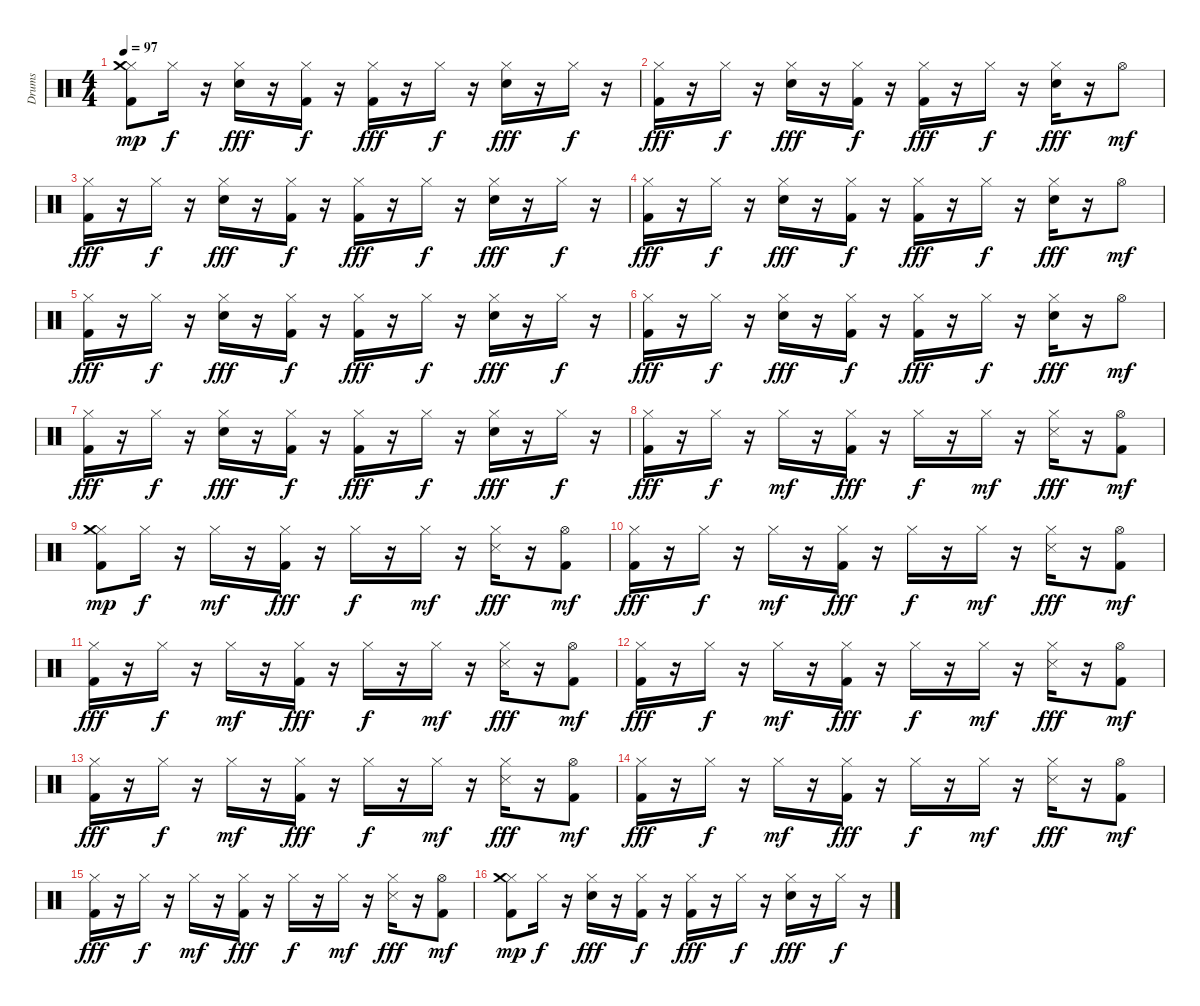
\track ("Drums" "Drums") {instrument percussion}
\staff {score}
\articulation defaults
\ts (4 4)
\tempo 97
\clef neutral
\ks c
("Kick (hit) 2" "Hi-Hat (closed)" "Crash medium (hit)").8{dy mp} "Hi-Hat (closed)".16{dy f} r.16 ("Electric Snare (hit)" "Hi-Hat (closed)").16{dy fff} r.16 ("Kick (hit) 2" "Hi-Hat (closed)").16{dy f} r.16 ("Kick (hit) 2" "Hi-Hat (closed)").16{dy fff} r.16 "Hi-Hat (closed)".16{dy f} r.16 ("Electric Snare (hit)" "Hi-Hat (closed)").16{dy fff} r.16 "Hi-Hat (closed)".16{dy f} r.16 |
("Kick (hit) 2" "Hi-Hat (closed)").16{dy fff} r.16 "Hi-Hat (closed)".16{dy f} r.16 ("Electric Snare (hit)" "Hi-Hat (closed)").16{dy fff} r.16 ("Kick (hit) 2" "Hi-Hat (closed)").16{dy f} r.16 ("Kick (hit) 2" "Hi-Hat (closed)").16{dy fff} r.16 "Hi-Hat (closed)".16{dy f} r.16 ("Electric Snare (hit)" "Hi-Hat (closed)").16{dy fff} r.16 "Hi-Hat (open)".8{dy mf} |
("Kick (hit) 2" "Hi-Hat (closed)").16{dy fff} r.16 "Hi-Hat (closed)".16{dy f} r.16 ("Electric Snare (hit)" "Hi-Hat (closed)").16{dy fff} r.16 ("Kick (hit) 2" "Hi-Hat (closed)").16{dy f} r.16 ("Kick (hit) 2" "Hi-Hat (closed)").16{dy fff} r.16 "Hi-Hat (closed)".16{dy f} r.16 ("Electric Snare (hit)" "Hi-Hat (closed)").16{dy fff} r.16 "Hi-Hat (closed)".16{dy f} r.16 |
("Kick (hit) 2" "Hi-Hat (closed)").16{dy fff} r.16 "Hi-Hat (closed)".16{dy f} r.16 ("Electric Snare (hit)" "Hi-Hat (closed)").16{dy fff} r.16 ("Kick (hit) 2" "Hi-Hat (closed)").16{dy f} r.16 ("Kick (hit) 2" "Hi-Hat (closed)").16{dy fff} r.16 "Hi-Hat (closed)".16{dy f} r.16 ("Electric Snare (hit)" "Hi-Hat (closed)").16{dy fff} r.16 "Hi-Hat (open)".8{dy mf} |
("Kick (hit) 2" "Hi-Hat (closed)").16{dy fff} r.16 "Hi-Hat (closed)".16{dy f} r.16 ("Electric Snare (hit)" "Hi-Hat (closed)").16{dy fff} r.16 ("Kick (hit) 2" "Hi-Hat (closed)").16{dy f} r.16 ("Kick (hit) 2" "Hi-Hat (closed)").16{dy fff} r.16 "Hi-Hat (closed)".16{dy f} r.16 ("Electric Snare (hit)" "Hi-Hat (closed)").16{dy fff} r.16 "Hi-Hat (closed)".16{dy f} r.16 |
("Kick (hit) 2" "Hi-Hat (closed)").16{dy fff} r.16 "Hi-Hat (closed)".16{dy f} r.16 ("Electric Snare (hit)" "Hi-Hat (closed)").16{dy fff} r.16 ("Kick (hit) 2" "Hi-Hat (closed)").16{dy f} r.16 ("Kick (hit) 2" "Hi-Hat (closed)").16{dy fff} r.16 "Hi-Hat (closed)".16{dy f} r.16 ("Electric Snare (hit)" "Hi-Hat (closed)").16{dy fff} r.16 "Hi-Hat (open)".8{dy mf} |
("Kick (hit) 2" "Hi-Hat (closed)").16{dy fff} r.16 "Hi-Hat (closed)".16{dy f} r.16 ("Electric Snare (hit)" "Hi-Hat (closed)").16{dy fff} r.16 ("Kick (hit) 2" "Hi-Hat (closed)").16{dy f} r.16 ("Kick (hit) 2" "Hi-Hat (closed)").16{dy fff} r.16 "Hi-Hat (closed)".16{dy f} r.16 ("Electric Snare (hit)" "Hi-Hat (closed)").16{dy fff} r.16 "Hi-Hat (closed)".16{dy f} r.16 |
("Kick (hit) 2" "Hi-Hat (closed)").16{dy fff} r.16 "Hi-Hat (closed)".16{dy f} r.16 "Hi-Hat (closed)".16{dy mf} r.16 ("Kick (hit) 2" "Hi-Hat (closed)").16{dy fff} r.16 "Hi-Hat (closed)".16{dy f} r.16 "Hi-Hat (closed)".16{dy mf} r.16 ("Hi-Hat (closed)" "Snare (side stick) 3").16{dy fff} r.16 ("Kick (hit) 2" "Hi-Hat (open)").8{dy mf} |
("Kick (hit) 2" "Hi-Hat (closed)" "Crash medium (hit)").8{dy mp} "Hi-Hat (closed)".16{dy f} r.16 "Hi-Hat (closed)".16{dy mf} r.16 ("Kick (hit) 2" "Hi-Hat (closed)").16{dy fff} r.16 "Hi-Hat (closed)".16{dy f} r.16 "Hi-Hat (closed)".16{dy mf} r.16 ("Hi-Hat (closed)" "Snare (side stick) 3").16{dy fff} r.16 ("Kick (hit) 2" "Hi-Hat (open)").8{dy mf} |
("Kick (hit) 2" "Hi-Hat (closed)").16{dy fff} r.16 "Hi-Hat (closed)".16{dy f} r.16 "Hi-Hat (closed)".16{dy mf} r.16 ("Kick (hit) 2" "Hi-Hat (closed)").16{dy fff} r.16 "Hi-Hat (closed)".16{dy f} r.16 "Hi-Hat (closed)".16{dy mf} r.16 ("Hi-Hat (closed)" "Snare (side stick) 3").16{dy fff} r.16 ("Kick (hit) 2" "Hi-Hat (open)").8{dy mf} |
("Kick (hit) 2" "Hi-Hat (closed)").16{dy fff} r.16 "Hi-Hat (closed)".16{dy f} r.16 "Hi-Hat (closed)".16{dy mf} r.16 ("Kick (hit) 2" "Hi-Hat (closed)").16{dy fff} r.16 "Hi-Hat (closed)".16{dy f} r.16 "Hi-Hat (closed)".16{dy mf} r.16 ("Hi-Hat (closed)" "Snare (side stick) 3").16{dy fff} r.16 ("Kick (hit) 2" "Hi-Hat (open)").8{dy mf} |
("Kick (hit) 2" "Hi-Hat (closed)").16{dy fff} r.16 "Hi-Hat (closed)".16{dy f} r.16 "Hi-Hat (closed)".16{dy mf} r.16 ("Kick (hit) 2" "Hi-Hat (closed)").16{dy fff} r.16 "Hi-Hat (closed)".16{dy f} r.16 "Hi-Hat (closed)".16{dy mf} r.16 ("Hi-Hat (closed)" "Snare (side stick) 3").16{dy fff} r.16 ("Kick (hit) 2" "Hi-Hat (open)").8{dy mf} |
("Kick (hit) 2" "Hi-Hat (closed)").16{dy fff} r.16 "Hi-Hat (closed)".16{dy f} r.16 "Hi-Hat (closed)".16{dy mf} r.16 ("Kick (hit) 2" "Hi-Hat (closed)").16{dy fff} r.16 "Hi-Hat (closed)".16{dy f} r.16 "Hi-Hat (closed)".16{dy mf} r.16 ("Hi-Hat (closed)" "Snare (side stick) 3").16{dy fff} r.16 ("Kick (hit) 2" "Hi-Hat (open)").8{dy mf} |
("Kick (hit) 2" "Hi-Hat (closed)").16{dy fff} r.16 "Hi-Hat (closed)".16{dy f} r.16 "Hi-Hat (closed)".16{dy mf} r.16 ("Kick (hit) 2" "Hi-Hat (closed)").16{dy fff} r.16 "Hi-Hat (closed)".16{dy f} r.16 "Hi-Hat (closed)".16{dy mf} r.16 ("Hi-Hat (closed)" "Snare (side stick) 3").16{dy fff} r.16 ("Kick (hit) 2" "Hi-Hat (open)").8{dy mf} |
("Kick (hit) 2" "Hi-Hat (closed)").16{dy fff} r.16 "Hi-Hat (closed)".16{dy f} r.16 "Hi-Hat (closed)".16{dy mf} r.16 ("Kick (hit) 2" "Hi-Hat (closed)").16{dy fff} r.16 "Hi-Hat (closed)".16{dy f} r.16 "Hi-Hat (closed)".16{dy mf} r.16 ("Hi-Hat (closed)" "Snare (side stick) 3").16{dy fff} r.16 ("Kick (hit) 2" "Hi-Hat (open)").8{dy mf} |
("Kick (hit) 2" "Hi-Hat (closed)" "Crash medium (hit)").8{dy mp} "Hi-Hat (closed)".16{dy f} r.16 ("Electric Snare (hit)" "Hi-Hat (closed)").16{dy fff} r.16 ("Kick (hit) 2" "Hi-Hat (closed)").16{dy f} r.16 ("Kick (hit) 2" "Hi-Hat (closed)").16{dy fff} r.16 "Hi-Hat (closed)".16{dy f} r.16 ("Electric Snare (hit)" "Hi-Hat (closed)").16{dy fff} r.16 "Hi-Hat (closed)".16{dy f} r.16
